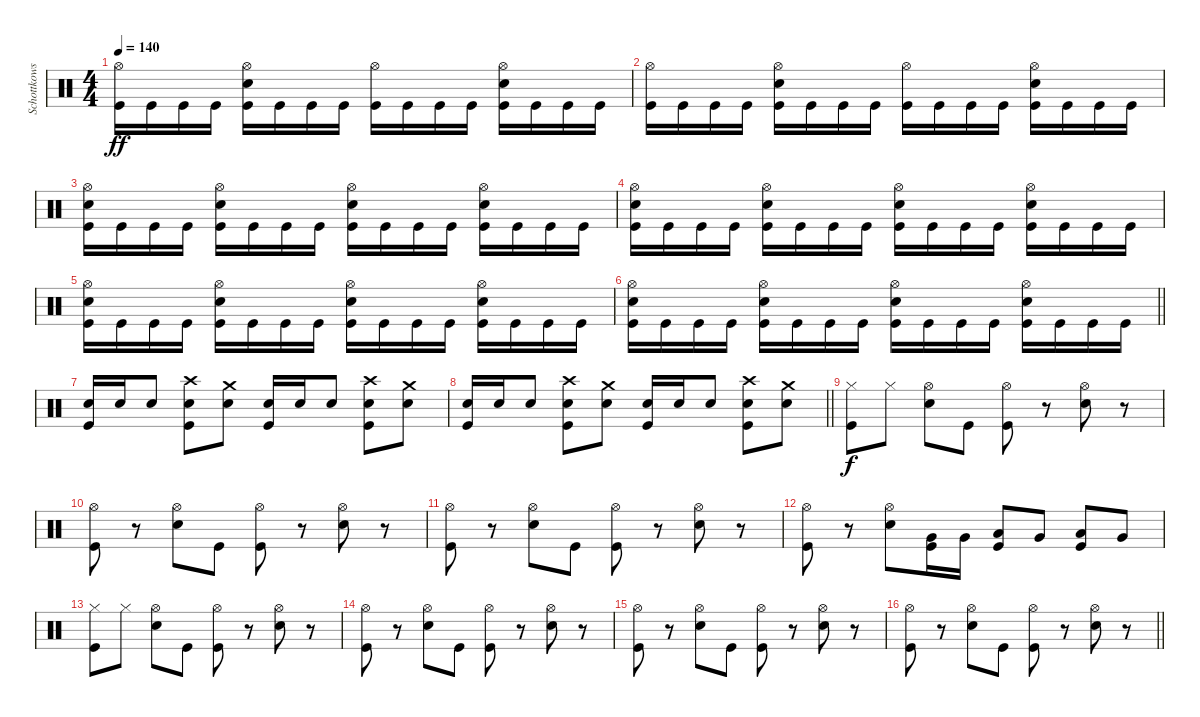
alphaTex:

\track ("Schottkowski" "Schottkows") {instrument percussion}
\staff {score}
\articulation defaults
\ts (4 4)
\tempo 140
\clef neutral
\ks c
("Hi-Hat (open)" "Kick (hit)").16{dy ff} "Kick (hit)".16 "Kick (hit)".16 "Kick (hit)".16 ("Hi-Hat (open)" "Snare (hit) 2" "Kick (hit)").16 "Kick (hit)".16 "Kick (hit)".16 "Kick (hit)".16 ("Hi-Hat (open)" "Kick (hit)").16 "Kick (hit)".16 "Kick (hit)".16 "Kick (hit)".16 ("Hi-Hat (open)" "Snare (hit) 2" "Kick (hit)").16 "Kick (hit)".16 "Kick (hit)".16 "Kick (hit)".16 |
("Hi-Hat (open)" "Kick (hit)").16 "Kick (hit)".16 "Kick (hit)".16 "Kick (hit)".16 ("Hi-Hat (open)" "Snare (hit) 2" "Kick (hit)").16 "Kick (hit)".16 "Kick (hit)".16 "Kick (hit)".16 ("Hi-Hat (open)" "Kick (hit)").16 "Kick (hit)".16 "Kick (hit)".16 "Kick (hit)".16 ("Hi-Hat (open)" "Snare (hit) 2" "Kick (hit)").16 "Kick (hit)".16 "Kick (hit)".16 "Kick (hit)".16 |
("Hi-Hat (open)" "Snare (hit) 2" "Kick (hit)").16 "Kick (hit)".16 "Kick (hit)".16 "Kick (hit)".16 ("Hi-Hat (open)" "Snare (hit) 2" "Kick (hit)").16 "Kick (hit)".16 "Kick (hit)".16 "Kick (hit)".16 ("Hi-Hat (open)" "Snare (hit) 2" "Kick (hit)").16 "Kick (hit)".16 "Kick (hit)".16 "Kick (hit)".16 ("Hi-Hat (open)" "Snare (hit) 2" "Kick (hit)").16 "Kick (hit)".16 "Kick (hit)".16 "Kick (hit)".16 |
("Hi-Hat (open)" "Snare (hit) 2" "Kick (hit)").16 "Kick (hit)".16 "Kick (hit)".16 "Kick (hit)".16 ("Hi-Hat (open)" "Snare (hit) 2" "Kick (hit)").16 "Kick (hit)".16 "Kick (hit)".16 "Kick (hit)".16 ("Hi-Hat (open)" "Snare (hit) 2" "Kick (hit)").16 "Kick (hit)".16 "Kick (hit)".16 "Kick (hit)".16 ("Hi-Hat (open)" "Snare (hit) 2" "Kick (hit)").16 "Kick (hit)".16 "Kick (hit)".16 "Kick (hit)".16 |
("Hi-Hat (open)" "Snare (hit) 2" "Kick (hit)").16 "Kick (hit)".16 "Kick (hit)".16 "Kick (hit)".16 ("Hi-Hat (open)" "Snare (hit) 2" "Kick (hit)").16 "Kick (hit)".16 "Kick (hit)".16 "Kick (hit)".16 ("Hi-Hat (open)" "Snare (hit) 2" "Kick (hit)").16 "Kick (hit)".16 "Kick (hit)".16 "Kick (hit)".16 ("Hi-Hat (open)" "Snare (hit) 2" "Kick (hit)").16 "Kick (hit)".16 "Kick (hit)".16 "Kick (hit)".16 |
\barLineRight lightlight
("Hi-Hat (open)" "Snare (hit) 2" "Kick (hit)").16 "Kick (hit)".16 "Kick (hit)".16 "Kick (hit)".16 ("Hi-Hat (open)" "Snare (hit) 2" "Kick (hit)").16 "Kick (hit)".16 "Kick (hit)".16 "Kick (hit)".16 ("Hi-Hat (open)" "Snare (hit) 2" "Kick (hit)").16 "Kick (hit)".16 "Kick (hit)".16 "Kick (hit)".16 ("Hi-Hat (open)" "Snare (hit) 2" "Kick (hit)").16 "Kick (hit)".16 "Kick (hit)".16 "Kick (hit)".16 |
\section ("" "")
("Snare (hit) 2" "Kick (hit)").16 "Snare (hit) 2".16 "Snare (hit) 2".8 ("Crash high (hit)" "Snare (hit) 2" "Kick (hit)").8 ("Crash medium (hit)" "Snare (hit) 2").8 ("Snare (hit) 2" "Kick (hit)").16 "Snare (hit) 2".16 "Snare (hit) 2".8 ("Crash high (hit)" "Snare (hit) 2" "Kick (hit)").8 ("Crash medium (hit)" "Snare (hit) 2").8 |
\barLineRight lightlight
("Snare (hit) 2" "Kick (hit)").16 "Snare (hit) 2".16 "Snare (hit) 2".8 ("Crash high (hit)" "Snare (hit) 2" "Kick (hit)").8 ("Crash medium (hit)" "Snare (hit) 2").8 ("Snare (hit) 2" "Kick (hit)").16 "Snare (hit) 2".16 "Snare (hit) 2".8 ("Crash high (hit)" "Snare (hit) 2" "Kick (hit)").8 ("Crash medium (hit)" "Snare (hit) 2").8 |
\section ("" "")
("Hi-Hat (closed)" "Kick (hit)").8{dy f} "Hi-Hat (closed)".8 ("Hi-Hat (open)" "Snare (hit) 2").8 "Kick (hit)".8 ("Hi-Hat (open)" "Kick (hit)").8 r.8 ("Hi-Hat (open)" "Snare (hit) 2").8 r.8 |
("Hi-Hat (open)" "Kick (hit)").8 r.8 ("Hi-Hat (open)" "Snare (hit) 2").8 "Kick (hit)".8 ("Hi-Hat (open)" "Kick (hit)").8 r.8 ("Hi-Hat (open)" "Snare (hit) 2").8 r.8 |
("Hi-Hat (open)" "Kick (hit)").8 r.8 ("Hi-Hat (open)" "Snare (hit) 2").8 "Kick (hit)".8 ("Hi-Hat (open)" "Kick (hit)").8 r.8 ("Hi-Hat (open)" "Snare (hit) 2").8 r.8 |
("Hi-Hat (open)" "Kick (hit)").8 r.8 ("Hi-Hat (open)" "Snare (hit) 2").8 ("Very Low Tom (hit)" "Kick (hit)").16 "Very Low Tom (hit)".16 ("Low Tom (hit)" "Kick (hit)").8 "Very Low Tom (hit)".8 ("Low Floor Tom (hit)" "Kick (hit)").8 "Very Low Tom (hit)".8 |
("Hi-Hat (closed)" "Kick (hit)").8 "Hi-Hat (closed)".8 ("Hi-Hat (open)" "Snare (hit) 2").8 "Kick (hit)".8 ("Hi-Hat (open)" "Kick (hit)").8 r.8 ("Hi-Hat (open)" "Snare (hit) 2").8 r.8 |
("Hi-Hat (open)" "Kick (hit)").8 r.8 ("Hi-Hat (open)" "Snare (hit) 2").8 "Kick (hit)".8 ("Hi-Hat (open)" "Kick (hit)").8 r.8 ("Hi-Hat (open)" "Snare (hit) 2").8 r.8 |
("Hi-Hat (open)" "Kick (hit)").8 r.8 ("Hi-Hat (open)" "Snare (hit) 2").8 "Kick (hit)".8 ("Hi-Hat (open)" "Kick (hit)").8 r.8 ("Hi-Hat (open)" "Snare (hit) 2").8 r.8 |
\barLineRight lightlight
("Hi-Hat (open)" "Kick (hit)").8 r.8 ("Hi-Hat (open)" "Snare (hit) 2").8 "Kick (hit)".8 ("Hi-Hat (open)" "Kick (hit)").8 r.8 ("Hi-Hat (open)" "Snare (hit) 2").8 r.8
